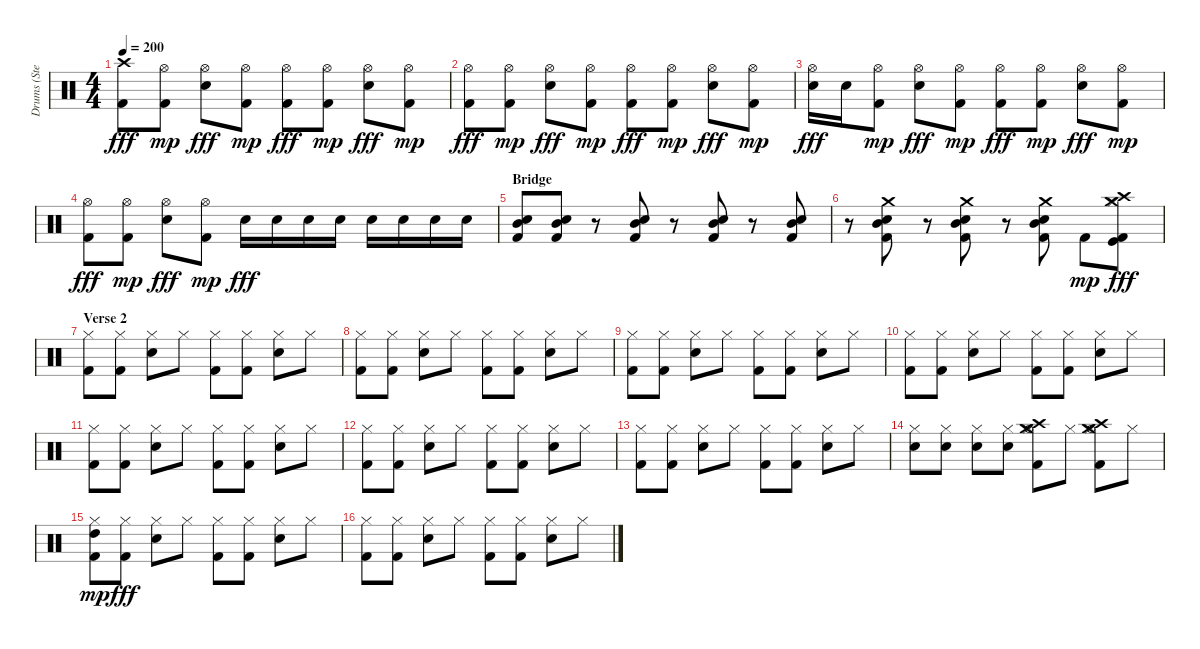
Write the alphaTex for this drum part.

\track ("Drums (Stevo32)" "Drums (Ste") {instrument percussion}
\staff {score}
\articulation defaults
\ts (4 4)
\tempo 200
\clef neutral
\ks c
("Kick (hit) 2" "Crash high (hit)").8{dy fff} ("Kick (hit) 2" "Hi-Hat (open)").8{dy mp} ("Electric Snare (hit)" "Hi-Hat (open)").8{dy fff} ("Kick (hit) 2" "Hi-Hat (open)").8{dy mp} ("Kick (hit) 2" "Hi-Hat (open)").8{dy fff} ("Kick (hit) 2" "Hi-Hat (open)").8{dy mp} ("Electric Snare (hit)" "Hi-Hat (open)").8{dy fff} ("Kick (hit) 2" "Hi-Hat (open)").8{dy mp} |
("Kick (hit) 2" "Hi-Hat (open)").8{dy fff} ("Kick (hit) 2" "Hi-Hat (open)").8{dy mp} ("Electric Snare (hit)" "Hi-Hat (open)").8{dy fff} ("Kick (hit) 2" "Hi-Hat (open)").8{dy mp} ("Kick (hit) 2" "Hi-Hat (open)").8{dy fff} ("Kick (hit) 2" "Hi-Hat (open)").8{dy mp} ("Electric Snare (hit)" "Hi-Hat (open)").8{dy fff} ("Kick (hit) 2" "Hi-Hat (open)").8{dy mp} |
("Electric Snare (hit)" "Hi-Hat (open)").16{dy fff} "Electric Snare (hit)".16 ("Kick (hit) 2" "Hi-Hat (open)").8{dy mp} ("Electric Snare (hit)" "Hi-Hat (open)").8{dy fff} ("Kick (hit) 2" "Hi-Hat (open)").8{dy mp} ("Kick (hit) 2" "Hi-Hat (open)").8{dy fff} ("Kick (hit) 2" "Hi-Hat (open)").8{dy mp} ("Electric Snare (hit)" "Hi-Hat (open)").8{dy fff} ("Kick (hit) 2" "Hi-Hat (open)").8{dy mp} |
("Kick (hit) 2" "Hi-Hat (open)").8{dy fff} ("Kick (hit) 2" "Hi-Hat (open)").8{dy mp} ("Electric Snare (hit)" "Hi-Hat (open)").8{dy fff} ("Kick (hit) 2" "Hi-Hat (open)").8{dy mp} "Electric Snare (hit)".16{dy fff} "Electric Snare (hit)".16 "Electric Snare (hit)".16 "Electric Snare (hit)".16 "Electric Snare (hit)".16 "Electric Snare (hit)".16 "Electric Snare (hit)".16 "Electric Snare (hit)".16 |
\section ("" "Bridge")
("Kick (hit) 2" "Electric Snare (hit)" "Mid Tom (hit)").8 ("Kick (hit) 2" "Electric Snare (hit)" "Mid Tom (hit)").8 r.8 ("Kick (hit) 2" "Electric Snare (hit)" "Mid Tom (hit)").8 r.8 ("Kick (hit) 2" "Electric Snare (hit)" "Mid Tom (hit)").8 r.8 ("Kick (hit) 2" "Electric Snare (hit)" "Mid Tom (hit)").8 |
r.8 ("Kick (hit) 2" "Electric Snare (hit)" "Mid Tom (hit)" "Crash medium (hit)").8 r.8 ("Kick (hit) 2" "Electric Snare (hit)" "Mid Tom (hit)" "Crash medium (hit)").8 r.8 ("Kick (hit) 2" "Electric Snare (hit)" "Mid Tom (hit)" "Crash medium (hit)").8 "Kick (hit) 2".8{dy mp} ("Kick (hit)" "Kick (hit) 2" "Hi-Hat (closed)" "Crash high (hit)" "Crash medium (hit)").8{dy fff} |
\section ("" "Verse 2")
("Kick (hit) 2" "Hi-Hat (closed)").8 ("Kick (hit) 2" "Hi-Hat (closed)").8 ("Electric Snare (hit)" "Hi-Hat (closed)").8 "Hi-Hat (closed)".8 ("Kick (hit) 2" "Hi-Hat (closed)").8 ("Kick (hit) 2" "Hi-Hat (closed)").8 ("Electric Snare (hit)" "Hi-Hat (closed)").8 "Hi-Hat (closed)".8 |
("Kick (hit) 2" "Hi-Hat (closed)").8 ("Kick (hit) 2" "Hi-Hat (closed)").8 ("Electric Snare (hit)" "Hi-Hat (closed)").8 "Hi-Hat (closed)".8 ("Kick (hit) 2" "Hi-Hat (closed)").8 ("Kick (hit) 2" "Hi-Hat (closed)").8 ("Electric Snare (hit)" "Hi-Hat (closed)").8 "Hi-Hat (closed)".8 |
("Kick (hit) 2" "Hi-Hat (closed)").8 ("Kick (hit) 2" "Hi-Hat (closed)").8 ("Electric Snare (hit)" "Hi-Hat (closed)").8 "Hi-Hat (closed)".8 ("Kick (hit) 2" "Hi-Hat (closed)").8 ("Kick (hit) 2" "Hi-Hat (closed)").8 ("Electric Snare (hit)" "Hi-Hat (closed)").8 "Hi-Hat (closed)".8 |
("Kick (hit) 2" "Hi-Hat (closed)").8 ("Kick (hit) 2" "Hi-Hat (closed)").8 ("Electric Snare (hit)" "Hi-Hat (closed)").8 "Hi-Hat (closed)".8 ("Kick (hit) 2" "Hi-Hat (closed)").8 ("Kick (hit) 2" "Hi-Hat (closed)").8 ("Electric Snare (hit)" "Hi-Hat (closed)").8 "Hi-Hat (closed)".8 |
("Kick (hit) 2" "Hi-Hat (closed)").8 ("Kick (hit) 2" "Hi-Hat (closed)").8 ("Electric Snare (hit)" "Hi-Hat (closed)").8 "Hi-Hat (closed)".8 ("Kick (hit) 2" "Hi-Hat (closed)").8 ("Kick (hit) 2" "Hi-Hat (closed)").8 ("Electric Snare (hit)" "Hi-Hat (closed)").8 "Hi-Hat (closed)".8 |
("Kick (hit) 2" "Hi-Hat (closed)").8 ("Kick (hit) 2" "Hi-Hat (closed)").8 ("Electric Snare (hit)" "Hi-Hat (closed)").8 "Hi-Hat (closed)".8 ("Kick (hit) 2" "Hi-Hat (closed)").8 ("Kick (hit) 2" "Hi-Hat (closed)").8 ("Electric Snare (hit)" "Hi-Hat (closed)").8 "Hi-Hat (closed)".8 |
("Kick (hit) 2" "Hi-Hat (closed)").8 ("Kick (hit) 2" "Hi-Hat (closed)").8 ("Electric Snare (hit)" "Hi-Hat (closed)").8 "Hi-Hat (closed)".8 ("Kick (hit) 2" "Hi-Hat (closed)").8 ("Kick (hit) 2" "Hi-Hat (closed)").8 ("Electric Snare (hit)" "Hi-Hat (closed)").8 "Hi-Hat (closed)".8 |
("Electric Snare (hit)" "Hi-Hat (closed)").8 ("Electric Snare (hit)" "Hi-Hat (closed)").8 ("Electric Snare (hit)" "Hi-Hat (closed)").8 ("Electric Snare (hit)" "Hi-Hat (closed)").8 ("Kick (hit) 2" "Hi-Hat (closed)" "Hi-Hat (open)" "Crash high (hit)" "Crash medium (hit)").8 "Hi-Hat (closed)".8 ("Kick (hit) 2" "Hi-Hat (closed)" "Hi-Hat (open)" "Crash high (hit)" "Crash medium (hit)").8 "Hi-Hat (closed)".8 |
("Kick (hit) 2" "Hi-Hat (closed)" "High Tom (hit)").8{dy mp} ("Kick (hit) 2" "Hi-Hat (closed)").8{dy fff} ("Electric Snare (hit)" "Hi-Hat (closed)").8 "Hi-Hat (closed)".8 ("Kick (hit) 2" "Hi-Hat (closed)").8 ("Kick (hit) 2" "Hi-Hat (closed)").8 ("Electric Snare (hit)" "Hi-Hat (closed)").8 "Hi-Hat (closed)".8 |
("Kick (hit) 2" "Hi-Hat (closed)").8 ("Kick (hit) 2" "Hi-Hat (closed)").8 ("Electric Snare (hit)" "Hi-Hat (closed)").8 "Hi-Hat (closed)".8 ("Kick (hit) 2" "Hi-Hat (closed)").8 ("Kick (hit) 2" "Hi-Hat (closed)").8 ("Electric Snare (hit)" "Hi-Hat (closed)").8 "Hi-Hat (closed)".8
